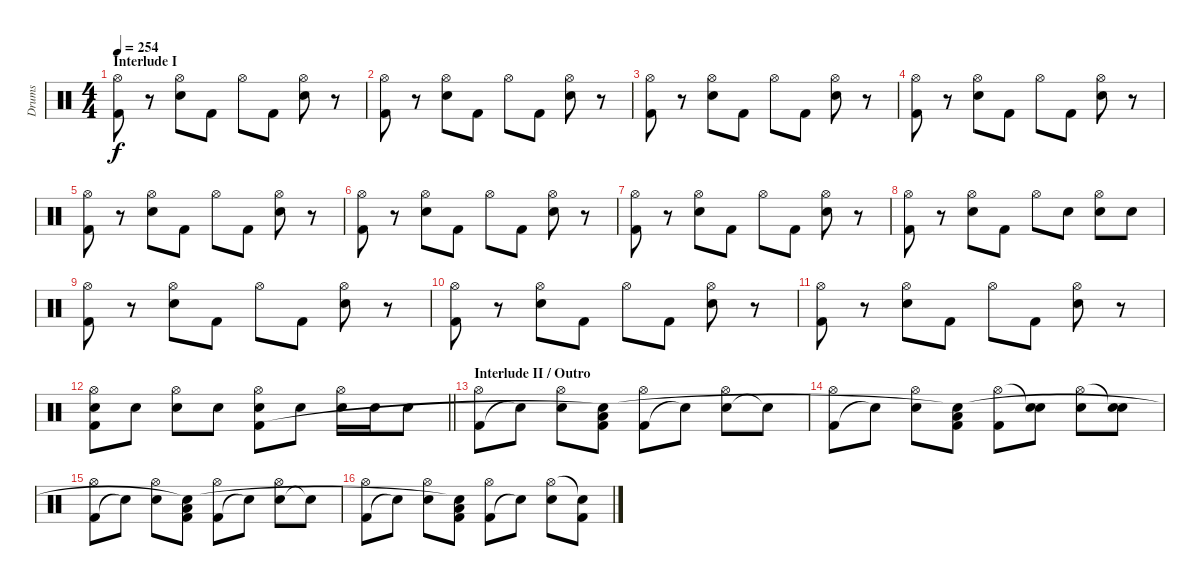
\track ("Drums" "Drums") {instrument percussion}
\staff {score}
\articulation defaults
\ts (4 4)
\section ("" "Interlude I")
\tempo 254
\clef neutral
\ks c
("Hi-Hat (open)" "Kick (hit) 2").8{dy f} r.8 ("Hi-Hat (open)" "Electric Snare (hit)").8 "Kick (hit) 2".8 "Hi-Hat (open)".8 "Kick (hit) 2".8 ("Hi-Hat (open)" "Electric Snare (hit)").8 r.8 |
("Hi-Hat (open)" "Kick (hit) 2").8 r.8 ("Hi-Hat (open)" "Electric Snare (hit)").8 "Kick (hit) 2".8 "Hi-Hat (open)".8 "Kick (hit) 2".8 ("Hi-Hat (open)" "Electric Snare (hit)").8 r.8 |
("Hi-Hat (open)" "Kick (hit) 2").8 r.8 ("Hi-Hat (open)" "Electric Snare (hit)").8 "Kick (hit) 2".8 "Hi-Hat (open)".8 "Kick (hit) 2".8 ("Hi-Hat (open)" "Electric Snare (hit)").8 r.8 |
("Hi-Hat (open)" "Kick (hit) 2").8 r.8 ("Hi-Hat (open)" "Electric Snare (hit)").8 "Kick (hit) 2".8 "Hi-Hat (open)".8 "Kick (hit) 2".8 ("Hi-Hat (open)" "Electric Snare (hit)").8 r.8 |
("Hi-Hat (open)" "Kick (hit) 2").8 r.8 ("Hi-Hat (open)" "Electric Snare (hit)").8 "Kick (hit) 2".8 "Hi-Hat (open)".8 "Kick (hit) 2".8 ("Hi-Hat (open)" "Electric Snare (hit)").8 r.8 |
("Hi-Hat (open)" "Kick (hit) 2").8 r.8 ("Hi-Hat (open)" "Electric Snare (hit)").8 "Kick (hit) 2".8 "Hi-Hat (open)".8 "Kick (hit) 2".8 ("Hi-Hat (open)" "Electric Snare (hit)").8 r.8 |
("Hi-Hat (open)" "Kick (hit) 2").8 r.8 ("Hi-Hat (open)" "Electric Snare (hit)").8 "Kick (hit) 2".8 "Hi-Hat (open)".8 "Kick (hit) 2".8 ("Hi-Hat (open)" "Electric Snare (hit)").8 r.8 |
("Hi-Hat (open)" "Kick (hit) 2").8 r.8 ("Hi-Hat (open)" "Electric Snare (hit)").8 "Kick (hit) 2".8 "Hi-Hat (open)".8 "Electric Snare (hit)".8 ("Hi-Hat (open)" "Electric Snare (hit)").8 "Electric Snare (hit)".8 |
("Hi-Hat (open)" "Kick (hit) 2").8 r.8 ("Hi-Hat (open)" "Electric Snare (hit)").8 "Kick (hit) 2".8 "Hi-Hat (open)".8 "Kick (hit) 2".8 ("Hi-Hat (open)" "Electric Snare (hit)").8 r.8 |
("Hi-Hat (open)" "Kick (hit) 2").8 r.8 ("Hi-Hat (open)" "Electric Snare (hit)").8 "Kick (hit) 2".8 "Hi-Hat (open)".8 "Kick (hit) 2".8 ("Hi-Hat (open)" "Electric Snare (hit)").8 r.8 |
("Hi-Hat (open)" "Kick (hit) 2").8 r.8 ("Hi-Hat (open)" "Electric Snare (hit)").8 "Kick (hit) 2".8 "Hi-Hat (open)".8 "Kick (hit) 2".8 ("Hi-Hat (open)" "Electric Snare (hit)").8 r.8 |
\barLineRight lightlight
("Hi-Hat (open)" "Electric Snare (hit)" "Kick (hit) 2").8 "Electric Snare (hit)".8 ("Hi-Hat (open)" "Electric Snare (hit)").8 "Electric Snare (hit)".8 ("Hi-Hat (open)" "Electric Snare (hit)" "Kick (hit) 2").8 "Electric Snare (hit)".8 ("Hi-Hat (open)" "Electric Snare (hit)").16 "Electric Snare (hit)".16 "Electric Snare (hit)".8 |
\section ("" "Interlude II / Outro")
("Kick (hit) 2" "Hi-Hat (open)").8 "Snare (hit)"{t}.8 ("Electric Snare (hit)" "Hi-Hat (open)").8 ("Low Floor Tom (hit)" "Kick (hit) 2" "Snare (hit)"{t}).8 ("Kick (hit) 2" "Hi-Hat (open)").8 "Snare (hit)"{t}.8 ("Electric Snare (hit)" "Hi-Hat (open)").8 "Snare (hit)"{t}.8 |
("Kick (hit) 2" "Hi-Hat (open)").8 "Snare (hit)"{t}.8 ("Electric Snare (hit)" "Hi-Hat (open)").8 ("Low Floor Tom (hit)" "Kick (hit) 2" "Snare (hit)"{t}).8 ("Kick (hit) 2" "Hi-Hat (open)").8 ("Electric Snare (hit)" "Snare (hit)"{t}).8 ("Electric Snare (hit)" "Hi-Hat (open)").8 ("Electric Snare (hit)" "Snare (hit)"{t}).8 |
("Kick (hit) 2" "Hi-Hat (open)").8 "Snare (hit)"{t}.8 ("Electric Snare (hit)" "Hi-Hat (open)").8 ("Low Floor Tom (hit)" "Kick (hit) 2" "Snare (hit)"{t}).8 ("Kick (hit) 2" "Hi-Hat (open)").8 "Snare (hit)"{t}.8 ("Electric Snare (hit)" "Hi-Hat (open)").8 "Snare (hit)"{t}.8 |
("Kick (hit) 2" "Hi-Hat (open)").8 "Snare (hit)"{t}.8 ("Electric Snare (hit)" "Hi-Hat (open)").8 ("Low Floor Tom (hit)" "Kick (hit) 2" "Snare (hit)"{t}).8 ("Kick (hit) 2" "Hi-Hat (open)").8 "Snare (hit)"{t}.8 ("Electric Snare (hit)" "Hi-Hat (open)").8 ("Kick (hit) 2" "Snare (hit)"{t}).8
